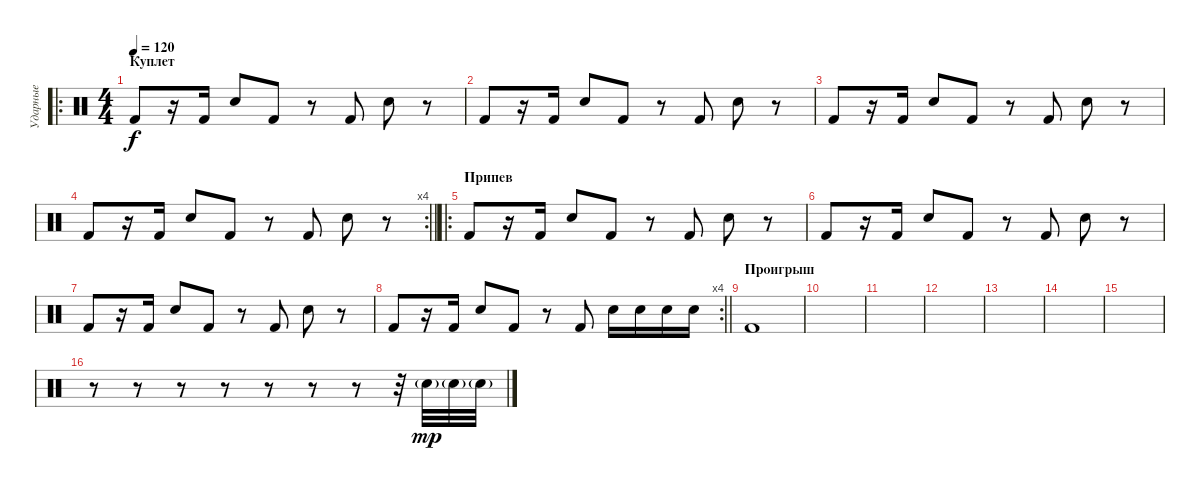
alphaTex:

\track ("Ударные" "Ударные") {instrument percussion}
\staff {score}
\articulation defaults
\ro
\ts (4 4)
\section ("" "Куплет")
\tempo 120
\clef neutral
\ks c "Kick (hit) 2".8{dy f}
r.16 "Kick (hit) 2".16 "Snare (hit) 2".8 "Kick (hit) 2".8 r.8 "Kick (hit) 2".8 "Snare (hit) 2".8 r.8 |
"Kick (hit) 2".8 r.16 "Kick (hit) 2".16 "Snare (hit) 2".8 "Kick (hit) 2".8 r.8 "Kick (hit) 2".8 "Snare (hit) 2".8 r.8 |
"Kick (hit) 2".8 r.16 "Kick (hit) 2".16 "Snare (hit) 2".8 "Kick (hit) 2".8 r.8 "Kick (hit) 2".8 "Snare (hit) 2".8 r.8 |
\rc 4
\barLineRight lightlight "Kick (hit) 2".8
r.16 "Kick (hit) 2".16 "Snare (hit) 2".8 "Kick (hit) 2".8 r.8 "Kick (hit) 2".8 "Snare (hit) 2".8 r.8 |
\ro
\section ("" "Припев")
"Kick (hit) 2".8 r.16 "Kick (hit) 2".16 "Snare (hit) 2".8 "Kick (hit) 2".8 r.8 "Kick (hit) 2".8 "Snare (hit) 2".8 r.8 |
"Kick (hit) 2".8 r.16 "Kick (hit) 2".16 "Snare (hit) 2".8 "Kick (hit) 2".8 r.8 "Kick (hit) 2".8 "Snare (hit) 2".8 r.8 |
"Kick (hit) 2".8 r.16 "Kick (hit) 2".16 "Snare (hit) 2".8 "Kick (hit) 2".8 r.8 "Kick (hit) 2".8 "Snare (hit) 2".8 r.8 |
\rc 4
\barLineRight lightlight "Kick (hit) 2".8
r.16 "Kick (hit) 2".16 "Snare (hit) 2".8 "Kick (hit) 2".8 r.8 "Kick (hit) 2".8 "Snare (hit) 2".16 "Snare (hit) 2".16 "Snare (hit) 2".16 "Snare (hit) 2".16 |
\section ("" "Проигрыш")
"Kick (hit) 2".1 |
|
|
|
|
|
|
r.8 r.8 r.8 r.8 r.8 r.8 r.8 r.32 "Snare (hit) 2"{g}.32{dy mp} "Snare (hit) 2"{g}.32 "Snare (hit) 2"{g}.32
